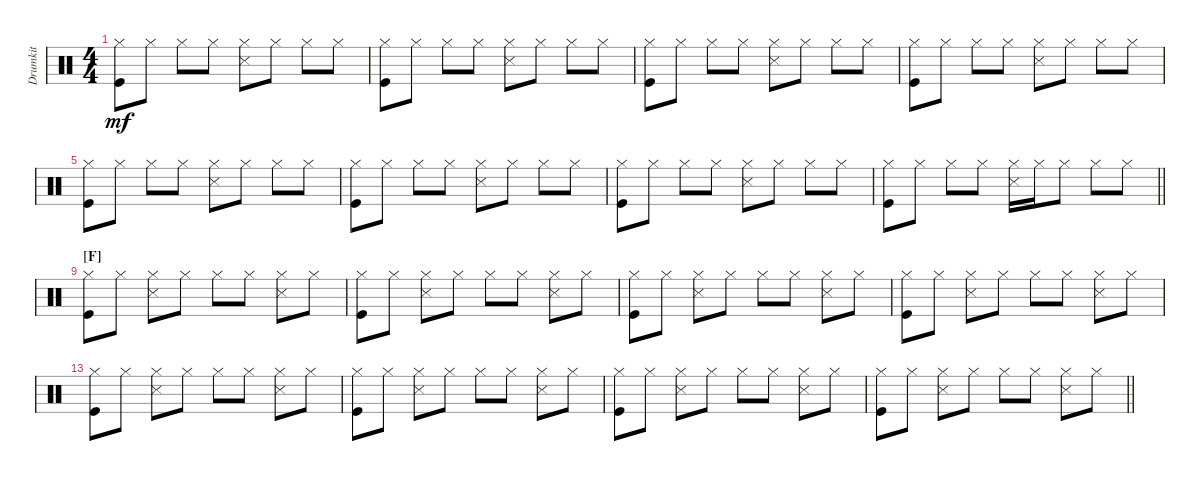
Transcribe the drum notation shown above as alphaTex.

\bracketExtendMode groupsimilarinstruments
\multiTrackTrackNamePolicy hidden
\firstSystemTrackNameMode fullname
\otherSystemsTrackNameMode fullname
\otherSystemsTrackNameOrientation horizontal
\defaultBarNumberDisplay FirstOfSystem
\track ("Drumkit" "Drums") {multiBarRest instrument percussion}
\staff {score}
\articulation defaults
\ts (4 4)
\tempo (150 hide)
\clef neutral
\ks c
("Hi-Hat (closed)" "Kick (hit)").8{dy mf} "Hi-Hat (closed)".8 "Hi-Hat (closed)".8 "Hi-Hat (closed)".8 ("Hi-Hat (closed)" "Snare (side stick) 3").8 "Hi-Hat (closed)".8 "Hi-Hat (closed)".8 "Hi-Hat (closed)".8 |
("Hi-Hat (closed)" "Kick (hit)").8 "Hi-Hat (closed)".8 "Hi-Hat (closed)".8 "Hi-Hat (closed)".8 ("Hi-Hat (closed)" "Snare (side stick) 3").8 "Hi-Hat (closed)".8 "Hi-Hat (closed)".8 "Hi-Hat (closed)".8 |
("Hi-Hat (closed)" "Kick (hit)").8 "Hi-Hat (closed)".8 "Hi-Hat (closed)".8 "Hi-Hat (closed)".8 ("Hi-Hat (closed)" "Snare (side stick) 3").8 "Hi-Hat (closed)".8 "Hi-Hat (closed)".8 "Hi-Hat (closed)".8 |
("Hi-Hat (closed)" "Kick (hit)").8 "Hi-Hat (closed)".8 "Hi-Hat (closed)".8 "Hi-Hat (closed)".8 ("Hi-Hat (closed)" "Snare (side stick) 3").8 "Hi-Hat (closed)".8 "Hi-Hat (closed)".8 "Hi-Hat (closed)".8 |
("Hi-Hat (closed)" "Kick (hit)").8 "Hi-Hat (closed)".8 "Hi-Hat (closed)".8 "Hi-Hat (closed)".8 ("Hi-Hat (closed)" "Snare (side stick) 3").8 "Hi-Hat (closed)".8 "Hi-Hat (closed)".8 "Hi-Hat (closed)".8 |
("Hi-Hat (closed)" "Kick (hit)").8 "Hi-Hat (closed)".8 "Hi-Hat (closed)".8 "Hi-Hat (closed)".8 ("Hi-Hat (closed)" "Snare (side stick) 3").8 "Hi-Hat (closed)".8 "Hi-Hat (closed)".8 "Hi-Hat (closed)".8 |
("Hi-Hat (closed)" "Kick (hit)").8 "Hi-Hat (closed)".8 "Hi-Hat (closed)".8 "Hi-Hat (closed)".8 ("Hi-Hat (closed)" "Snare (side stick) 3").8 "Hi-Hat (closed)".8 "Hi-Hat (closed)".8 "Hi-Hat (closed)".8 |
\barLineRight lightlight
("Hi-Hat (closed)" "Kick (hit)").8 "Hi-Hat (closed)".8 "Hi-Hat (closed)".8 "Hi-Hat (closed)".8 ("Hi-Hat (closed)" "Snare (side stick) 3").16 "Hi-Hat (closed)".16 "Hi-Hat (closed)".8 "Hi-Hat (closed)".8 "Hi-Hat (closed)".8 |
\section ("F" "")
("Hi-Hat (closed)" "Kick (hit)").8 "Hi-Hat (closed)".8 ("Hi-Hat (closed)" "Snare (side stick) 3").8 "Hi-Hat (closed)".8 "Hi-Hat (closed)".8 "Hi-Hat (closed)".8 ("Hi-Hat (closed)" "Snare (side stick) 3").8 "Hi-Hat (closed)".8 |
("Hi-Hat (closed)" "Kick (hit)").8 "Hi-Hat (closed)".8 ("Hi-Hat (closed)" "Snare (side stick) 3").8 "Hi-Hat (closed)".8 "Hi-Hat (closed)".8 "Hi-Hat (closed)".8 ("Hi-Hat (closed)" "Snare (side stick) 3").8 "Hi-Hat (closed)".8 |
("Hi-Hat (closed)" "Kick (hit)").8 "Hi-Hat (closed)".8 ("Hi-Hat (closed)" "Snare (side stick) 3").8 "Hi-Hat (closed)".8 "Hi-Hat (closed)".8 "Hi-Hat (closed)".8 ("Hi-Hat (closed)" "Snare (side stick) 3").8 "Hi-Hat (closed)".8 |
("Hi-Hat (closed)" "Kick (hit)").8 "Hi-Hat (closed)".8 ("Hi-Hat (closed)" "Snare (side stick) 3").8 "Hi-Hat (closed)".8 "Hi-Hat (closed)".8 "Hi-Hat (closed)".8 ("Hi-Hat (closed)" "Snare (side stick) 3").8 "Hi-Hat (closed)".8 |
("Hi-Hat (closed)" "Kick (hit)").8 "Hi-Hat (closed)".8 ("Hi-Hat (closed)" "Snare (side stick) 3").8 "Hi-Hat (closed)".8 "Hi-Hat (closed)".8 "Hi-Hat (closed)".8 ("Hi-Hat (closed)" "Snare (side stick) 3").8 "Hi-Hat (closed)".8 |
("Hi-Hat (closed)" "Kick (hit)").8 "Hi-Hat (closed)".8 ("Hi-Hat (closed)" "Snare (side stick) 3").8 "Hi-Hat (closed)".8 "Hi-Hat (closed)".8 "Hi-Hat (closed)".8 ("Hi-Hat (closed)" "Snare (side stick) 3").8 "Hi-Hat (closed)".8 |
("Hi-Hat (closed)" "Kick (hit)").8 "Hi-Hat (closed)".8 ("Hi-Hat (closed)" "Snare (side stick) 3").8 "Hi-Hat (closed)".8 "Hi-Hat (closed)".8 "Hi-Hat (closed)".8 ("Hi-Hat (closed)" "Snare (side stick) 3").8 "Hi-Hat (closed)".8 |
\barLineRight lightlight
("Hi-Hat (closed)" "Kick (hit)").8 "Hi-Hat (closed)".8 ("Hi-Hat (closed)" "Snare (side stick) 3").8 "Hi-Hat (closed)".8 "Hi-Hat (closed)".8 "Hi-Hat (closed)".8 ("Hi-Hat (closed)" "Snare (side stick) 3").8 "Hi-Hat (closed)".8
